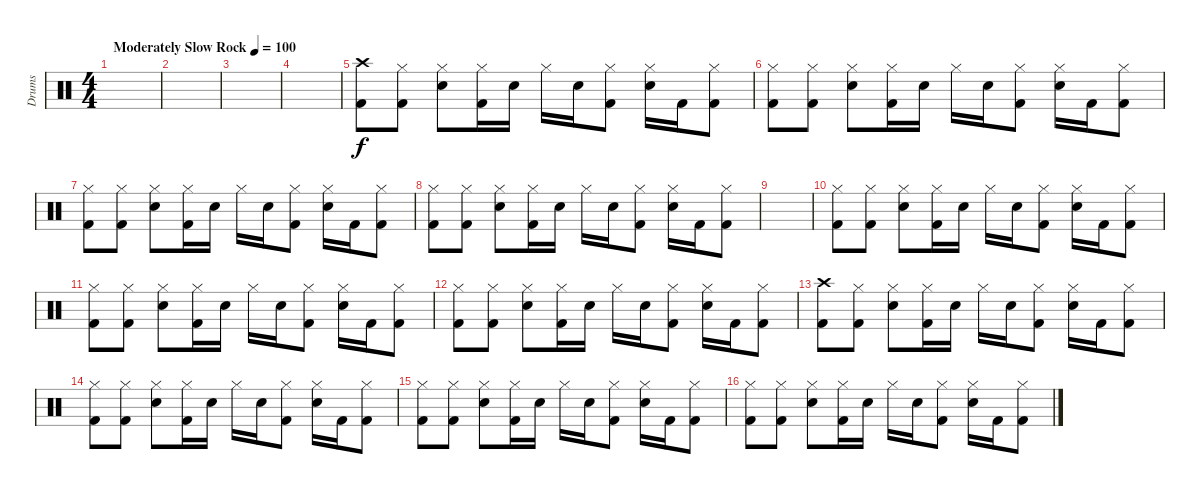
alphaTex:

\track ("Drums" "Drums") {instrument percussion}
\staff {score}
\articulation defaults
\ts (4 4)
\tempo (100 "Moderately Slow Rock")
\clef neutral
\ks c
|
|
|
|
("Crash high (hit)" "Kick (hit) 2").8 ("Hi-Hat (closed)" "Kick (hit) 2").8 ("Hi-Hat (closed)" "Snare (hit) 2").8 ("Hi-Hat (closed)" "Kick (hit) 2").16 "Snare (hit) 2".16 "Hi-Hat (closed)".16 "Snare (hit) 2".16 ("Hi-Hat (closed)" "Kick (hit) 2").8 ("Hi-Hat (closed)" "Snare (hit) 2").16 "Kick (hit) 2".16 ("Hi-Hat (closed)" "Kick (hit) 2").8 |
("Hi-Hat (closed)" "Kick (hit) 2").8 ("Hi-Hat (closed)" "Kick (hit) 2").8 ("Hi-Hat (closed)" "Snare (hit) 2").8 ("Hi-Hat (closed)" "Kick (hit) 2").16 "Snare (hit) 2".16 "Hi-Hat (closed)".16 "Snare (hit) 2".16 ("Hi-Hat (closed)" "Kick (hit) 2").8 ("Hi-Hat (closed)" "Snare (hit) 2").16 "Kick (hit) 2".16 ("Hi-Hat (closed)" "Kick (hit) 2").8 |
("Hi-Hat (closed)" "Kick (hit) 2").8 ("Hi-Hat (closed)" "Kick (hit) 2").8 ("Hi-Hat (closed)" "Snare (hit) 2").8 ("Hi-Hat (closed)" "Kick (hit) 2").16 "Snare (hit) 2".16 "Hi-Hat (closed)".16 "Snare (hit) 2".16 ("Hi-Hat (closed)" "Kick (hit) 2").8 ("Hi-Hat (closed)" "Snare (hit) 2").16 "Kick (hit) 2".16 ("Hi-Hat (closed)" "Kick (hit) 2").8 |
("Hi-Hat (closed)" "Kick (hit) 2").8 ("Hi-Hat (closed)" "Kick (hit) 2").8 ("Hi-Hat (closed)" "Snare (hit) 2").8 ("Hi-Hat (closed)" "Kick (hit) 2").16 "Snare (hit) 2".16 "Hi-Hat (closed)".16 "Snare (hit) 2".16 ("Hi-Hat (closed)" "Kick (hit) 2").8 ("Hi-Hat (closed)" "Snare (hit) 2").16 "Kick (hit) 2".16 ("Hi-Hat (closed)" "Kick (hit) 2").8 |
|
("Hi-Hat (closed)" "Kick (hit) 2").8 ("Hi-Hat (closed)" "Kick (hit) 2").8 ("Hi-Hat (closed)" "Snare (hit) 2").8 ("Hi-Hat (closed)" "Kick (hit) 2").16 "Snare (hit) 2".16 "Hi-Hat (closed)".16 "Snare (hit) 2".16 ("Hi-Hat (closed)" "Kick (hit) 2").8 ("Hi-Hat (closed)" "Snare (hit) 2").16 "Kick (hit) 2".16 ("Hi-Hat (closed)" "Kick (hit) 2").8 |
("Hi-Hat (closed)" "Kick (hit) 2").8 ("Hi-Hat (closed)" "Kick (hit) 2").8 ("Hi-Hat (closed)" "Snare (hit) 2").8 ("Hi-Hat (closed)" "Kick (hit) 2").16 "Snare (hit) 2".16 "Hi-Hat (closed)".16 "Snare (hit) 2".16 ("Hi-Hat (closed)" "Kick (hit) 2").8 ("Hi-Hat (closed)" "Snare (hit) 2").16 "Kick (hit) 2".16 ("Hi-Hat (closed)" "Kick (hit) 2").8 |
("Hi-Hat (closed)" "Kick (hit) 2").8 ("Hi-Hat (closed)" "Kick (hit) 2").8 ("Hi-Hat (closed)" "Snare (hit) 2").8 ("Hi-Hat (closed)" "Kick (hit) 2").16 "Snare (hit) 2".16 "Hi-Hat (closed)".16 "Snare (hit) 2".16 ("Hi-Hat (closed)" "Kick (hit) 2").8 ("Hi-Hat (closed)" "Snare (hit) 2").16 "Kick (hit) 2".16 ("Hi-Hat (closed)" "Kick (hit) 2").8 |
("Crash high (hit)" "Kick (hit) 2").8 ("Hi-Hat (closed)" "Kick (hit) 2").8 ("Hi-Hat (closed)" "Snare (hit) 2").8 ("Hi-Hat (closed)" "Kick (hit) 2").16 "Snare (hit) 2".16 "Hi-Hat (closed)".16 "Snare (hit) 2".16 ("Hi-Hat (closed)" "Kick (hit) 2").8 ("Hi-Hat (closed)" "Snare (hit) 2").16 "Kick (hit) 2".16 ("Hi-Hat (closed)" "Kick (hit) 2").8 |
("Hi-Hat (closed)" "Kick (hit) 2").8 ("Hi-Hat (closed)" "Kick (hit) 2").8 ("Hi-Hat (closed)" "Snare (hit) 2").8 ("Hi-Hat (closed)" "Kick (hit) 2").16 "Snare (hit) 2".16 "Hi-Hat (closed)".16 "Snare (hit) 2".16 ("Hi-Hat (closed)" "Kick (hit) 2").8 ("Hi-Hat (closed)" "Snare (hit) 2").16 "Kick (hit) 2".16 ("Hi-Hat (closed)" "Kick (hit) 2").8 |
("Hi-Hat (closed)" "Kick (hit) 2").8 ("Hi-Hat (closed)" "Kick (hit) 2").8 ("Hi-Hat (closed)" "Snare (hit) 2").8 ("Hi-Hat (closed)" "Kick (hit) 2").16 "Snare (hit) 2".16 "Hi-Hat (closed)".16 "Snare (hit) 2".16 ("Hi-Hat (closed)" "Kick (hit) 2").8 ("Hi-Hat (closed)" "Snare (hit) 2").16 "Kick (hit) 2".16 ("Hi-Hat (closed)" "Kick (hit) 2").8 |
("Hi-Hat (closed)" "Kick (hit) 2").8 ("Hi-Hat (closed)" "Kick (hit) 2").8 ("Hi-Hat (closed)" "Snare (hit) 2").8 ("Hi-Hat (closed)" "Kick (hit) 2").16 "Snare (hit) 2".16 "Hi-Hat (closed)".16 "Snare (hit) 2".16 ("Hi-Hat (closed)" "Kick (hit) 2").8 ("Hi-Hat (closed)" "Snare (hit) 2").16 "Kick (hit) 2".16 ("Hi-Hat (closed)" "Kick (hit) 2").8
